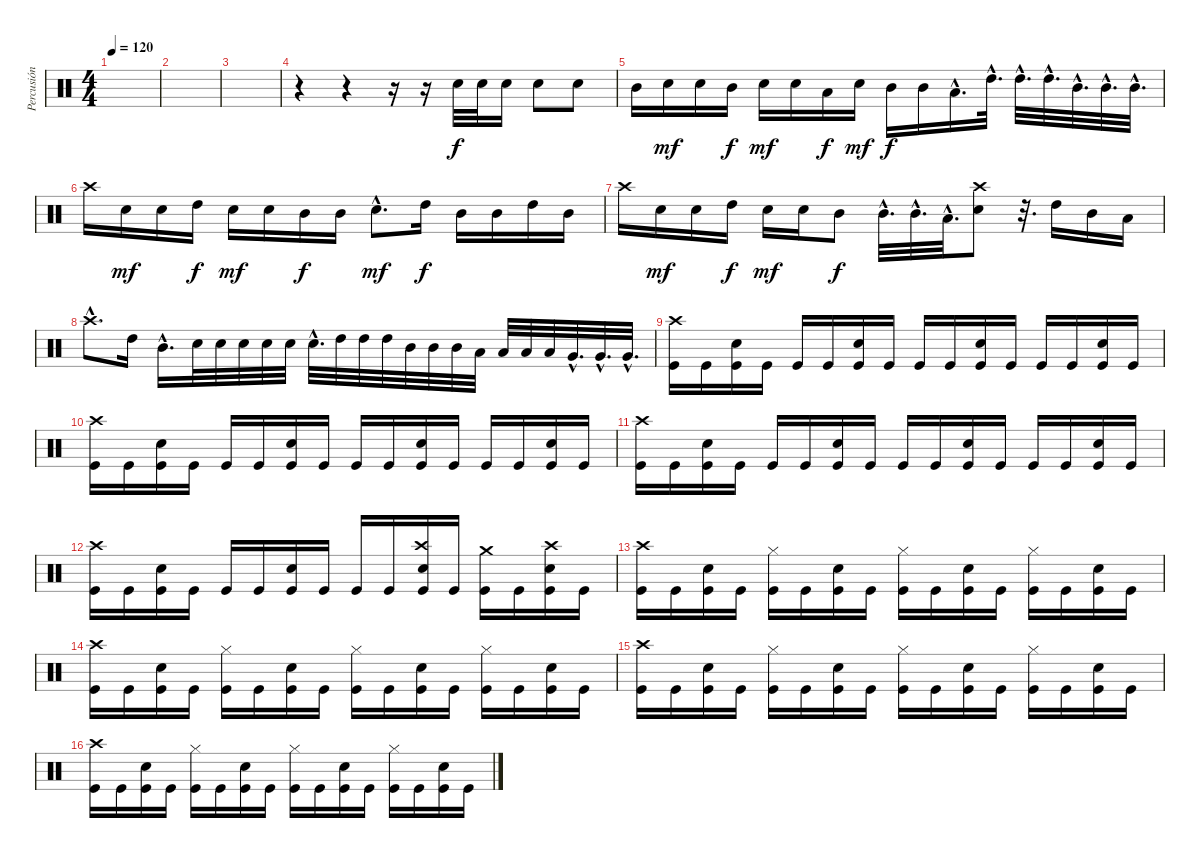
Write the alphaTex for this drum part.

\track ("Percusión" "Percusión") {instrument percussion}
\staff {score}
\articulation defaults
\ts (4 4)
\tempo 120
\clef neutral
\ks c
|
|
|
r.4 r.4 r.16 r.16 "Snare (hit) 2".32 "Snare (hit) 2".32 "Snare (hit) 2".16 "Snare (hit) 2".8 "Snare (hit) 2".8 |
"Mid Tom (hit)".16 "Snare (hit) 2".16{dy mf} "Snare (hit) 2".16 "Mid Tom (hit)".16{dy f} "Snare (hit) 2".16{dy mf} "Snare (hit) 2".16 "Low Tom (hit)".16{dy f} "Snare (hit) 2".16{dy mf} "Mid Tom (hit)".16{dy f} "Mid Tom (hit)".16 "Low Tom (hit)"{hac}.16{d} "High Tom (hit)"{hac}.32{d} "High Tom (hit)"{hac}.32{d} "High Tom (hit)"{hac}.32{d} "Mid Tom (hit)"{hac}.32{d} "Mid Tom (hit)"{hac}.32{d} "Mid Tom (hit)"{hac}.32{d} |
"Crash high (hit)".16 "Snare (hit) 2".16{dy mf} "Snare (hit) 2".16 "High Tom (hit)".16{dy f} "Snare (hit) 2".16{dy mf} "Snare (hit) 2".16 "Mid Tom (hit)".16{dy f} "Mid Tom (hit)".16 "Snare (hit) 2"{hac}.8{d dy mf} "High Tom (hit)".16{dy f} "Mid Tom (hit)".16 "Mid Tom (hit)".16 "High Tom (hit)".16 "Mid Tom (hit)".16 |
"Crash high (hit)".16 "Snare (hit) 2".16{dy mf} "Snare (hit) 2".16 "High Tom (hit)".16{dy f} "Snare (hit) 2".16{dy mf} "Snare (hit) 2".16 "Mid Tom (hit)".8{dy f} "Mid Tom (hit)"{hac}.32{d} "Mid Tom (hit)"{hac}.32{d} "Low Tom (hit)"{hac}.32{d} ("Crash high (hit)" "Snare (hit) 2").8 r.32{d} "High Tom (hit)".16 "Mid Tom (hit)".16 "Low Tom (hit)".16 |
"Crash high (hit)"{hac}.8{d} "High Tom (hit)".16 "Mid Tom (hit)"{hac}.16{d} "Snare (hit) 2".32 "Snare (hit) 2".32 "Snare (hit) 2".32 "Snare (hit) 2".32 "Snare (hit) 2".32 "Snare (hit) 2"{hac}.32{d} "High Tom (hit)".32 "High Tom (hit)".32 "High Tom (hit)".32 "Mid Tom (hit)".32 "Mid Tom (hit)".32 "Mid Tom (hit)".32 "Low Tom (hit)".32 "Low Tom (hit)".32 "Low Tom (hit)".32 "Low Tom (hit)".32 "Very Low Tom (hit)"{hac}.32{d} "Very Low Tom (hit)"{hac}.32{d} "Very Low Tom (hit)"{hac}.32{d} |
("Crash high (hit)" "Kick (hit)").16 "Kick (hit)".16 ("Snare (hit) 2" "Kick (hit)").16 "Kick (hit)".16 "Kick (hit)".16 "Kick (hit)".16 ("Snare (hit) 2" "Kick (hit)").16 "Kick (hit)".16 "Kick (hit)".16 "Kick (hit)".16 ("Snare (hit) 2" "Kick (hit)").16 "Kick (hit)".16 "Kick (hit)".16 "Kick (hit)".16 ("Snare (hit) 2" "Kick (hit)").16 "Kick (hit)".16 |
("Crash high (hit)" "Kick (hit)").16 "Kick (hit)".16 ("Snare (hit) 2" "Kick (hit)").16 "Kick (hit)".16 "Kick (hit)".16 "Kick (hit)".16 ("Snare (hit) 2" "Kick (hit)").16 "Kick (hit)".16 "Kick (hit)".16 "Kick (hit)".16 ("Snare (hit) 2" "Kick (hit)").16 "Kick (hit)".16 "Kick (hit)".16 "Kick (hit)".16 ("Snare (hit) 2" "Kick (hit)").16 "Kick (hit)".16 |
("Crash high (hit)" "Kick (hit)").16 "Kick (hit)".16 ("Snare (hit) 2" "Kick (hit)").16 "Kick (hit)".16 "Kick (hit)".16 "Kick (hit)".16 ("Snare (hit) 2" "Kick (hit)").16 "Kick (hit)".16 "Kick (hit)".16 "Kick (hit)".16 ("Snare (hit) 2" "Kick (hit)").16 "Kick (hit)".16 "Kick (hit)".16 "Kick (hit)".16 ("Snare (hit) 2" "Kick (hit)").16 "Kick (hit)".16 |
("Crash high (hit)" "Kick (hit)").16 "Kick (hit)".16 ("Snare (hit) 2" "Kick (hit)").16 "Kick (hit)".16 "Kick (hit)".16 "Kick (hit)".16 ("Snare (hit) 2" "Kick (hit)").16 "Kick (hit)".16 "Kick (hit)".16 "Kick (hit)".16 ("Crash high (hit)" "Snare (hit) 2" "Kick (hit)").16 "Kick (hit)".16 ("Crash medium (hit)" "Kick (hit)").16 "Kick (hit)".16 ("Crash high (hit)" "Snare (hit) 2" "Kick (hit)").16 "Kick (hit)".16 |
("Crash high (hit)" "Kick (hit)").16 "Kick (hit)".16 ("Snare (hit) 2" "Kick (hit)").16 "Kick (hit)".16 ("Hi-Hat (closed)" "Kick (hit)").16 "Kick (hit)".16 ("Snare (hit) 2" "Kick (hit)").16 "Kick (hit)".16 ("Hi-Hat (closed)" "Kick (hit)").16 "Kick (hit)".16 ("Snare (hit) 2" "Kick (hit)").16 "Kick (hit)".16 ("Hi-Hat (closed)" "Kick (hit)").16 "Kick (hit)".16 ("Snare (hit) 2" "Kick (hit)").16 "Kick (hit)".16 |
("Crash high (hit)" "Kick (hit)").16 "Kick (hit)".16 ("Snare (hit) 2" "Kick (hit)").16 "Kick (hit)".16 ("Hi-Hat (closed)" "Kick (hit)").16 "Kick (hit)".16 ("Snare (hit) 2" "Kick (hit)").16 "Kick (hit)".16 ("Hi-Hat (closed)" "Kick (hit)").16 "Kick (hit)".16 ("Snare (hit) 2" "Kick (hit)").16 "Kick (hit)".16 ("Hi-Hat (closed)" "Kick (hit)").16 "Kick (hit)".16 ("Snare (hit) 2" "Kick (hit)").16 "Kick (hit)".16 |
("Crash high (hit)" "Kick (hit)").16 "Kick (hit)".16 ("Snare (hit) 2" "Kick (hit)").16 "Kick (hit)".16 ("Hi-Hat (closed)" "Kick (hit)").16 "Kick (hit)".16 ("Snare (hit) 2" "Kick (hit)").16 "Kick (hit)".16 ("Hi-Hat (closed)" "Kick (hit)").16 "Kick (hit)".16 ("Snare (hit) 2" "Kick (hit)").16 "Kick (hit)".16 ("Hi-Hat (closed)" "Kick (hit)").16 "Kick (hit)".16 ("Snare (hit) 2" "Kick (hit)").16 "Kick (hit)".16 |
("Crash high (hit)" "Kick (hit)").16 "Kick (hit)".16 ("Snare (hit) 2" "Kick (hit)").16 "Kick (hit)".16 ("Hi-Hat (closed)" "Kick (hit)").16 "Kick (hit)".16 ("Snare (hit) 2" "Kick (hit)").16 "Kick (hit)".16 ("Hi-Hat (closed)" "Kick (hit)").16 "Kick (hit)".16 ("Snare (hit) 2" "Kick (hit)").16 "Kick (hit)".16 ("Hi-Hat (closed)" "Kick (hit)").16 "Kick (hit)".16 ("Snare (hit) 2" "Kick (hit)").16 "Kick (hit)".16
